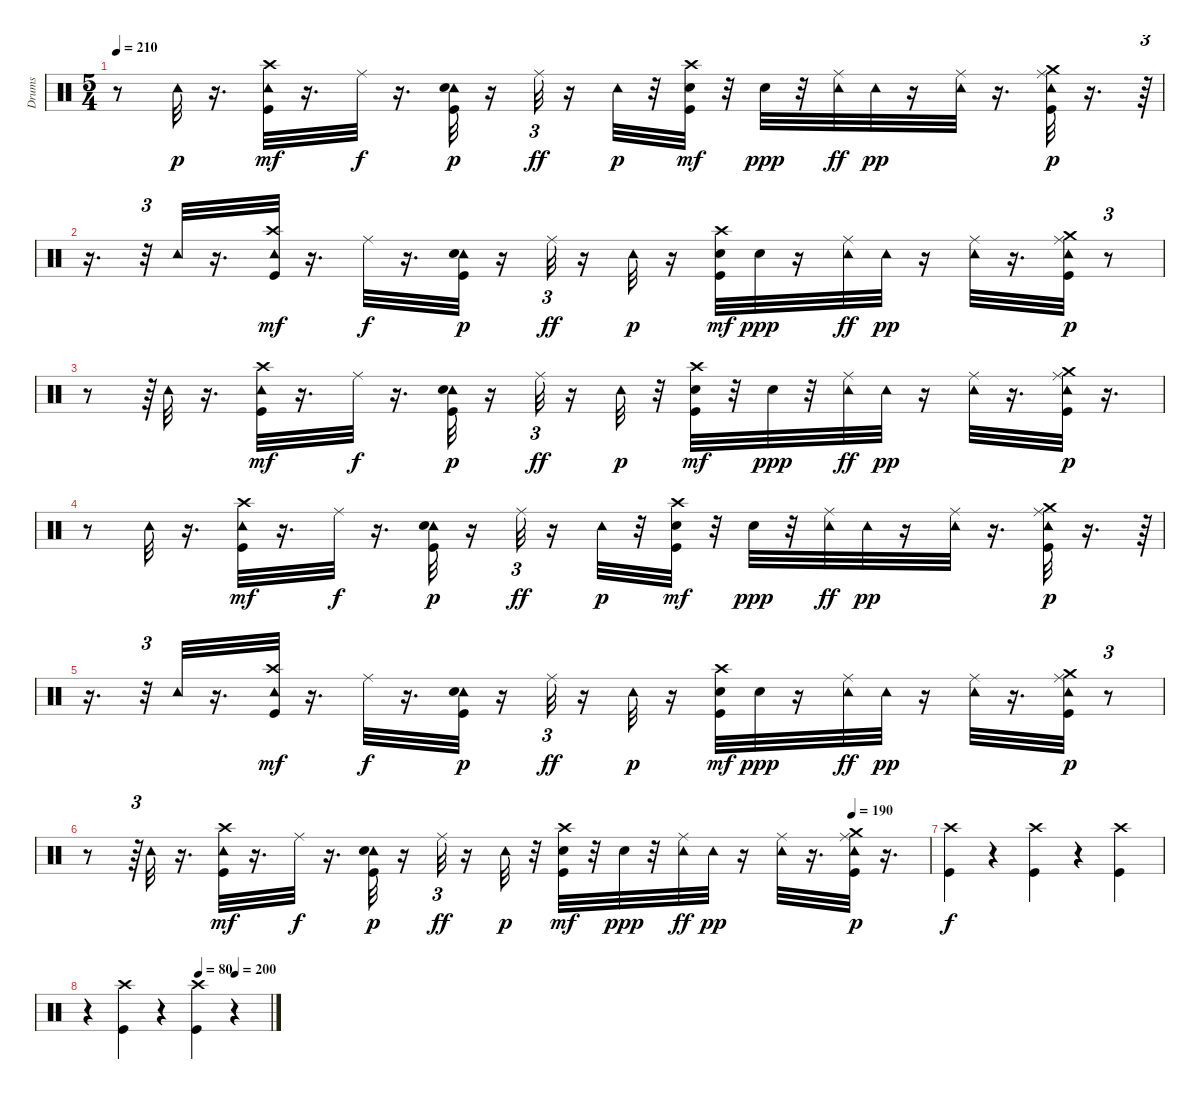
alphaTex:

\track ("Drums" "Drums") {instrument percussion}
\staff {score}
\articulation defaults
\ts (5 4)
\tempo 210
\clef neutral
\ks c
r.8{dy p} "Tambourine (hit)".32 r.16{d} ("Tambourine (hit)" "Crash high (hit)" "Kick (hit)").32{dy mf} r.16{d} "Ride (middle)".32{dy f} r.16{d} ("Tambourine (hit)" "Snare (hit) 2" "Kick (hit)").32{dy p} r.16 "Ride (middle)".32{tu (3 2) dy ff} r.16 "Tambourine (hit)".32{dy p} r.32 ("Crash high (hit)" "Kick (hit)" "Snare (hit) 2").32{dy mf} r.32 "Snare (hit)".32{dy ppp} r.32 ("Tambourine (hit)" "Ride (middle)").32{dy ff} "Tambourine (hit)".32{dy pp} r.16 ("Ride (middle)" "Tambourine (hit)").32 r.16{d} ("Crash medium (hit)" "Tambourine (hit)" "Ride (middle)" "Kick (hit)").32{dy p} r.16{d} r.64{tu (3 2)} |
r.16{d} r.32{tu (3 2)} "Tambourine (hit)".32 r.16{d} ("Tambourine (hit)" "Crash high (hit)" "Kick (hit)").32{dy mf} r.16{d} "Ride (middle)".32{dy f} r.16{d} ("Tambourine (hit)" "Snare (hit) 2" "Kick (hit)").32{dy p} r.16 "Ride (middle)".32{tu (3 2) dy ff} r.16 "Tambourine (hit)".32{dy p} r.16 ("Crash high (hit)" "Kick (hit)" "Snare (hit) 2").32{dy mf} "Snare (hit)".32{dy ppp} r.16 ("Tambourine (hit)" "Ride (middle)").32{dy ff} "Tambourine (hit)".32{dy pp} r.16 ("Ride (middle)" "Tambourine (hit)").32 r.16{d} ("Crash medium (hit)" "Tambourine (hit)" "Ride (middle)" "Kick (hit)").32{dy p} r.8{tu (3 2)} |
r.8 r.64{tu (3 2)} "Tambourine (hit)".32 r.16{d} ("Tambourine (hit)" "Crash high (hit)" "Kick (hit)").32{dy mf} r.16{d} "Ride (middle)".32{dy f} r.16{d} ("Tambourine (hit)" "Snare (hit) 2" "Kick (hit)").32{dy p} r.16 "Ride (middle)".32{tu (3 2) dy ff} r.16 "Tambourine (hit)".32{dy p} r.32 ("Crash high (hit)" "Kick (hit)" "Snare (hit) 2").32{dy mf} r.32 "Snare (hit)".32{dy ppp} r.32 ("Tambourine (hit)" "Ride (middle)").32{dy ff} "Tambourine (hit)".32{dy pp} r.16 ("Ride (middle)" "Tambourine (hit)").32 r.16{d} ("Crash medium (hit)" "Tambourine (hit)" "Ride (middle)" "Kick (hit)").32{dy p} r.16{d} |
r.8 "Tambourine (hit)".32 r.16{d} ("Tambourine (hit)" "Crash high (hit)" "Kick (hit)").32{dy mf} r.16{d} "Ride (middle)".32{dy f} r.16{d} ("Tambourine (hit)" "Snare (hit) 2" "Kick (hit)").32{dy p} r.16 "Ride (middle)".32{tu (3 2) dy ff} r.16 "Tambourine (hit)".32{dy p} r.32 ("Crash high (hit)" "Kick (hit)" "Snare (hit) 2").32{dy mf} r.32 "Snare (hit)".32{dy ppp} r.32 ("Tambourine (hit)" "Ride (middle)").32{dy ff} "Tambourine (hit)".32{dy pp} r.16 ("Ride (middle)" "Tambourine (hit)").32 r.16{d} ("Crash medium (hit)" "Tambourine (hit)" "Ride (middle)" "Kick (hit)").32{dy p} r.16{d} r.64{tu (3 2)} |
r.16{d} r.32{tu (3 2)} "Tambourine (hit)".32 r.16{d} ("Tambourine (hit)" "Crash high (hit)" "Kick (hit)").32{dy mf} r.16{d} "Ride (middle)".32{dy f} r.16{d} ("Tambourine (hit)" "Snare (hit) 2" "Kick (hit)").32{dy p} r.16 "Ride (middle)".32{tu (3 2) dy ff} r.16 "Tambourine (hit)".32{dy p} r.16 ("Crash high (hit)" "Kick (hit)" "Snare (hit) 2").32{dy mf} "Snare (hit)".32{dy ppp} r.16 ("Tambourine (hit)" "Ride (middle)").32{dy ff} "Tambourine (hit)".32{dy pp} r.16 ("Ride (middle)" "Tambourine (hit)").32 r.16{d} ("Crash medium (hit)" "Tambourine (hit)" "Ride (middle)" "Kick (hit)").32{dy p} r.8{tu (3 2)} |
\tempo (190 0.9083333333333333)
r.8 r.64{tu (3 2)} "Tambourine (hit)".32 r.16{d} ("Tambourine (hit)" "Crash high (hit)" "Kick (hit)").32{dy mf} r.16{d} "Ride (middle)".32{dy f} r.16{d} ("Tambourine (hit)" "Snare (hit) 2" "Kick (hit)").32{dy p} r.16 "Ride (middle)".32{tu (3 2) dy ff} r.16 "Tambourine (hit)".32{dy p} r.32 ("Crash high (hit)" "Kick (hit)" "Snare (hit) 2").32{dy mf} r.32 "Snare (hit)".32{dy ppp} r.32 ("Tambourine (hit)" "Ride (middle)").32{dy ff} "Tambourine (hit)".32{dy pp} r.16 ("Ride (middle)" "Tambourine (hit)").32 r.16{d} ("Crash medium (hit)" "Tambourine (hit)" "Ride (middle)" "Kick (hit)").32{dy p} r.16{d} |
("Kick (hit)" "Crash high (hit)").4{dy f} r.4 ("Crash high (hit)" "Kick (hit)").4 r.4 ("Crash high (hit)" "Kick (hit)").4 |
\tempo (80 0.6083333333333333)
\tempo (200 0.8083333333333333)
r.4 ("Crash high (hit)" "Kick (hit)").4 r.4 ("Kick (hit)" "Crash high (hit)").4 r.4
